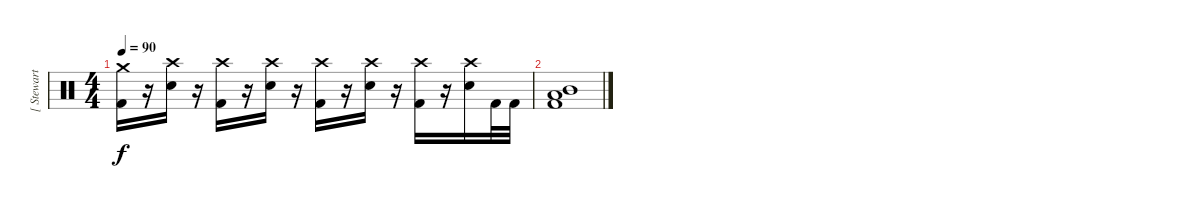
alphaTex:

\track ("[ Stewart ]" "[ Stewart ") {instrument percussion}
\staff {score}
\articulation defaults
\ts (4 4)
\tempo 90
\clef neutral
\ks c
("Kick (hit) 2" "Crash medium (hit)").16{dy f} r.16 ("Electric Snare (hit)" "Crash high (hit)").16 r.16 ("Kick (hit) 2" "Crash high (hit)").16 r.16 ("Electric Snare (hit)" "Crash high (hit)").16 r.16 ("Kick (hit) 2" "Crash high (hit)").16 r.16 ("Electric Snare (hit)" "Crash high (hit)").16 r.16 ("Kick (hit) 2" "Crash high (hit)").16 r.16 ("Electric Snare (hit)" "Crash high (hit)").16 "Kick (hit) 2".32 "Kick (hit) 2".32 |
("Mid Tom (hit)" "Low Tom (hit)" "Kick (hit) 2").1
